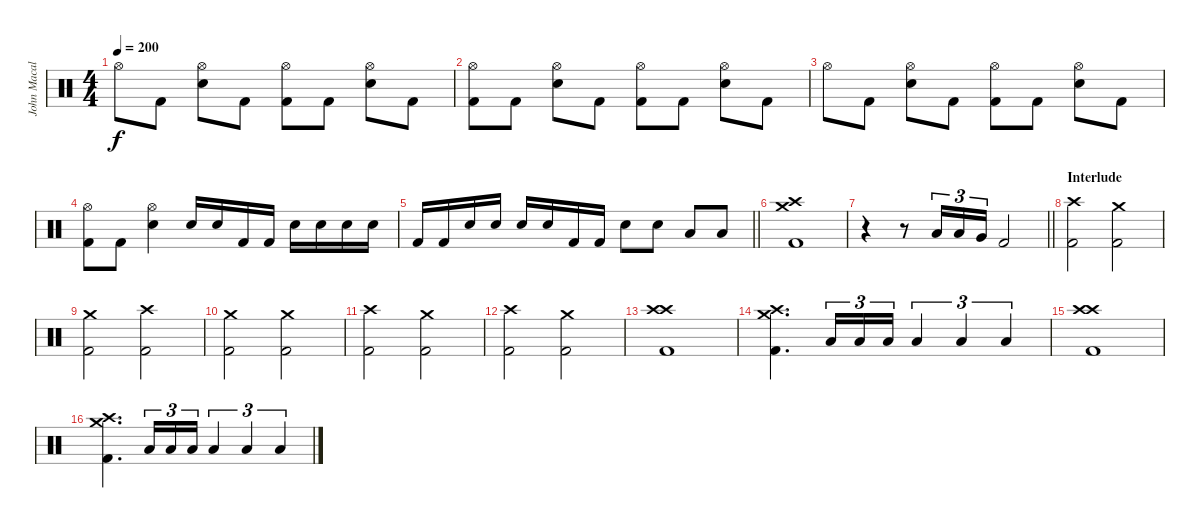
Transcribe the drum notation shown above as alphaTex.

\track ("John Macaluso" "John Macal") {instrument percussion}
\staff {score}
\articulation defaults
\ts (4 4)
\tempo 200
\clef neutral
\ks c "Hi-Hat (open)".8{dy f} "Kick (hit) 2".8
("Hi-Hat (open)" "Snare (hit) 2").8 "Kick (hit) 2".8 ("Hi-Hat (open)" "Kick (hit) 2").8 "Kick (hit) 2".8 ("Hi-Hat (open)" "Snare (hit) 2").8 "Kick (hit) 2".8 |
("Hi-Hat (open)" "Kick (hit) 2").8 "Kick (hit) 2".8 ("Hi-Hat (open)" "Snare (hit) 2").8 "Kick (hit) 2".8 ("Hi-Hat (open)" "Kick (hit) 2").8 "Kick (hit) 2".8 ("Hi-Hat (open)" "Snare (hit) 2").8 "Kick (hit) 2".8 |
"Hi-Hat (open)".8 "Kick (hit) 2".8 ("Hi-Hat (open)" "Snare (hit) 2").8 "Kick (hit) 2".8 ("Hi-Hat (open)" "Kick (hit) 2").8 "Kick (hit) 2".8 ("Hi-Hat (open)" "Snare (hit) 2").8 "Kick (hit) 2".8 |
("Hi-Hat (open)" "Kick (hit) 2").8 "Kick (hit) 2".8 ("Hi-Hat (open)" "Snare (hit) 2").4 "Snare (hit) 2".16 "Snare (hit) 2".16 "Kick (hit) 2".16 "Kick (hit) 2".16 "Snare (hit) 2".16 "Snare (hit) 2".16 "Snare (hit) 2".16 "Snare (hit) 2".16 |
\barLineRight lightlight "Kick (hit) 2".16 "Kick (hit) 2".16 "Snare (hit) 2".16 "Snare (hit) 2".16 "Snare (hit) 2".16 "Snare (hit) 2".16 "Kick (hit) 2".16 "Kick (hit) 2".16 "Snare (hit) 2".8 "Snare (hit) 2".8 "Low Tom (hit)".8 "Low Tom (hit)".8
|
("Crash medium (hit)" "Crash high (hit)" "Kick (hit) 2").1 |
\barLineRight lightlight
r.4 r.8 "Low Tom (hit)".16{tu (3 2)} "Low Tom (hit)".16{tu (3 2)} "Very Low Tom (hit)".16{tu (3 2)} "Kick (hit) 2".2 |
\section ("" "Interlude")
("Crash high (hit)" "Kick (hit) 2").2 ("Crash medium (hit)" "Kick (hit) 2").2 |
("Crash medium (hit)" "Kick (hit) 2").2 ("Crash high (hit)" "Kick (hit) 2").2 |
("Crash medium (hit)" "Kick (hit) 2").2 ("Crash medium (hit)" "Kick (hit) 2").2 |
("Crash high (hit)" "Kick (hit) 2").2 ("Crash medium (hit)" "Kick (hit) 2").2 |
("Crash high (hit)" "Kick (hit) 2").2 ("Crash medium (hit)" "Kick (hit) 2").2 |
("Crash high (hit)" "Crash high (hit)" "Kick (hit) 2").1 |
("Crash medium (hit)" "Crash high (hit)" "Kick (hit) 2").4{d} "Low Tom (hit)".16{tu (3 2)} "Low Tom (hit)".16{tu (3 2)} "Low Tom (hit)".16{tu (3 2)} "Low Tom (hit)".4{tu (3 2)} "Low Tom (hit)".4{tu (3 2)} "Low Tom (hit)".4{tu (3 2)} |
("Crash high (hit)" "Crash high (hit)" "Kick (hit) 2").1 |
("Crash medium (hit)" "Crash high (hit)" "Kick (hit) 2").4{d} "Low Tom (hit)".16{tu (3 2)} "Low Tom (hit)".16{tu (3 2)} "Low Tom (hit)".16{tu (3 2)} "Low Tom (hit)".4{tu (3 2)} "Low Tom (hit)".4{tu (3 2)} "Low Tom (hit)".4{tu (3 2)}
